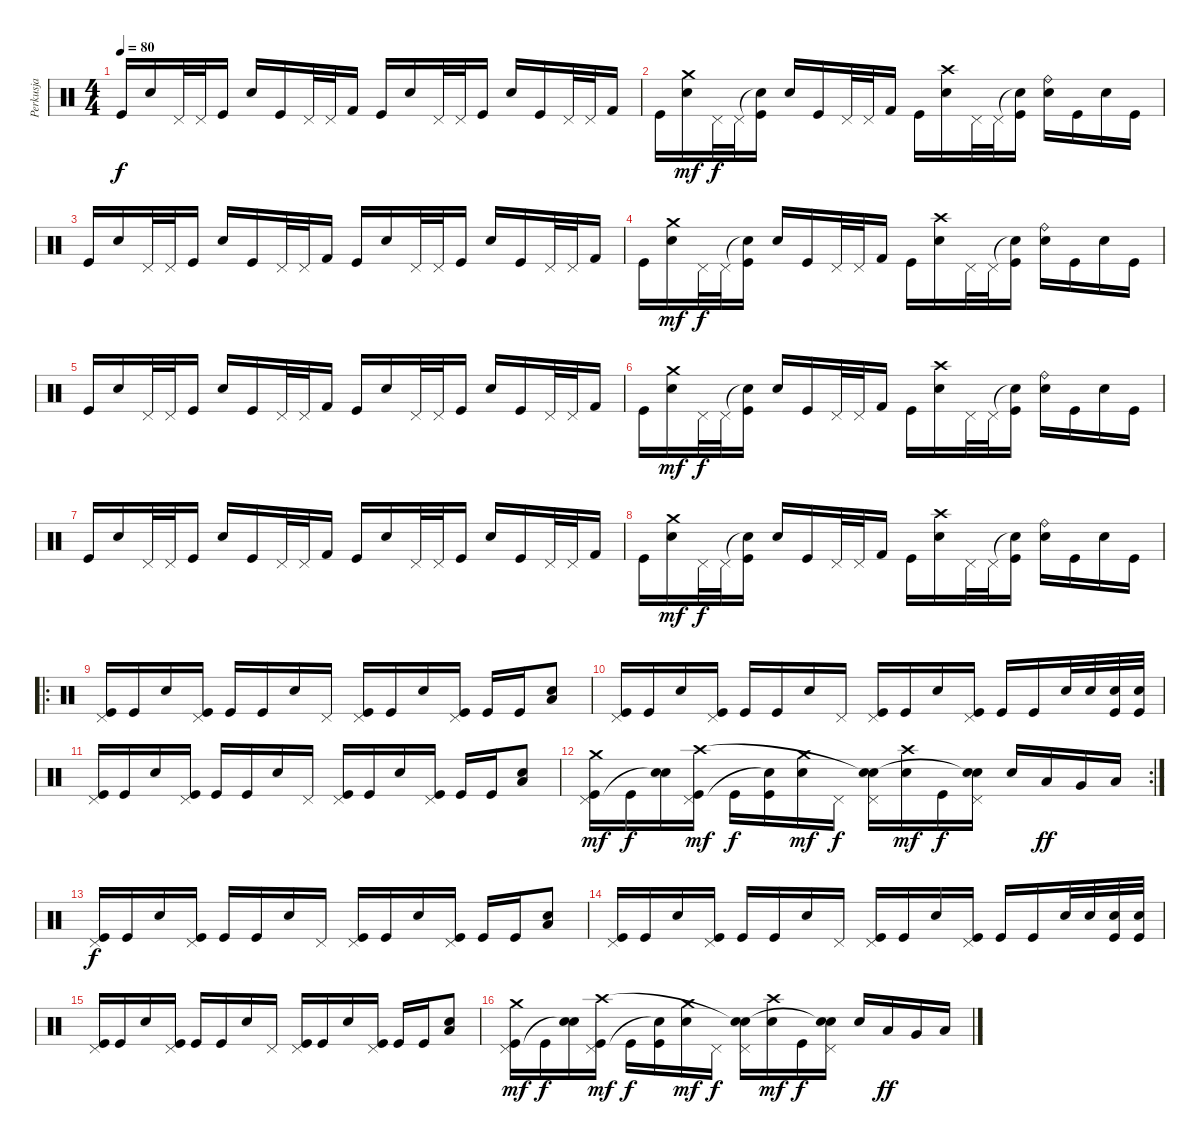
\track ("Perkusja" "Perkusja") {instrument percussion}
\staff {score}
\articulation defaults
\ts (4 4)
\tempo 80
\clef neutral
\ks c "Kick (hit)".16{dy f} "Electric Snare (hit)".16 "Pedal Hi-Hat (hit)".32 "Pedal Hi-Hat (hit)".32 "Kick (hit)".16 "Electric Snare (hit)".16 "Kick (hit)".16 "Pedal Hi-Hat (hit)".32 "Pedal Hi-Hat (hit)".32 "Kick (hit) 2".16 "Kick (hit)".16 "Electric Snare (hit)".16 "Pedal Hi-Hat (hit)".32 "Pedal Hi-Hat (hit)".32 "Kick (hit)".16 "Electric Snare (hit)".16 "Kick (hit)".16 "Pedal Hi-Hat (hit)".32 "Pedal Hi-Hat (hit)".32 "Kick (hit) 2".16
|
"Kick (hit)".16 ("Electric Snare (hit)" "Crash medium (hit)").16{dy mf} "Pedal Hi-Hat (hit)".32{dy f} "Pedal Hi-Hat (hit)".32 ("Snare (hit)"{t} "Kick (hit)").16 "Electric Snare (hit)".16 "Kick (hit)".16 "Pedal Hi-Hat (hit)".32 "Pedal Hi-Hat (hit)".32 "Kick (hit) 2".16 "Kick (hit)".16 ("Electric Snare (hit)" "Crash high (hit)").16 "Pedal Hi-Hat (hit)".32 "Pedal Hi-Hat (hit)".32 ("Snare (hit)"{t} "Kick (hit)").16 ("Electric Snare (hit)" "Ride (bell)").16 "Kick (hit)".16 "Electric Snare (hit)".16 "Kick (hit)".16 |
"Kick (hit)".16 "Electric Snare (hit)".16 "Pedal Hi-Hat (hit)".32 "Pedal Hi-Hat (hit)".32 "Kick (hit)".16 "Electric Snare (hit)".16 "Kick (hit)".16 "Pedal Hi-Hat (hit)".32 "Pedal Hi-Hat (hit)".32 "Kick (hit) 2".16 "Kick (hit)".16 "Electric Snare (hit)".16 "Pedal Hi-Hat (hit)".32 "Pedal Hi-Hat (hit)".32 "Kick (hit)".16 "Electric Snare (hit)".16 "Kick (hit)".16 "Pedal Hi-Hat (hit)".32 "Pedal Hi-Hat (hit)".32 "Kick (hit) 2".16 |
"Kick (hit)".16 ("Electric Snare (hit)" "Crash medium (hit)").16{dy mf} "Pedal Hi-Hat (hit)".32{dy f} "Pedal Hi-Hat (hit)".32 ("Snare (hit)"{t} "Kick (hit)").16 "Electric Snare (hit)".16 "Kick (hit)".16 "Pedal Hi-Hat (hit)".32 "Pedal Hi-Hat (hit)".32 "Kick (hit) 2".16 "Kick (hit)".16 ("Electric Snare (hit)" "Crash high (hit)").16 "Pedal Hi-Hat (hit)".32 "Pedal Hi-Hat (hit)".32 ("Snare (hit)"{t} "Kick (hit)").16 ("Electric Snare (hit)" "Ride (bell)").16 "Kick (hit)".16 "Electric Snare (hit)".16 "Kick (hit)".16 |
"Kick (hit)".16 "Electric Snare (hit)".16 "Pedal Hi-Hat (hit)".32 "Pedal Hi-Hat (hit)".32 "Kick (hit)".16 "Electric Snare (hit)".16 "Kick (hit)".16 "Pedal Hi-Hat (hit)".32 "Pedal Hi-Hat (hit)".32 "Kick (hit) 2".16 "Kick (hit)".16 "Electric Snare (hit)".16 "Pedal Hi-Hat (hit)".32 "Pedal Hi-Hat (hit)".32 "Kick (hit)".16 "Electric Snare (hit)".16 "Kick (hit)".16 "Pedal Hi-Hat (hit)".32 "Pedal Hi-Hat (hit)".32 "Kick (hit) 2".16 |
"Kick (hit)".16 ("Electric Snare (hit)" "Crash medium (hit)").16{dy mf} "Pedal Hi-Hat (hit)".32{dy f} "Pedal Hi-Hat (hit)".32 ("Snare (hit)"{t} "Kick (hit)").16 "Electric Snare (hit)".16 "Kick (hit)".16 "Pedal Hi-Hat (hit)".32 "Pedal Hi-Hat (hit)".32 "Kick (hit) 2".16 "Kick (hit)".16 ("Electric Snare (hit)" "Crash high (hit)").16 "Pedal Hi-Hat (hit)".32 "Pedal Hi-Hat (hit)".32 ("Snare (hit)"{t} "Kick (hit)").16 ("Electric Snare (hit)" "Ride (bell)").16 "Kick (hit)".16 "Electric Snare (hit)".16 "Kick (hit)".16 |
"Kick (hit)".16 "Electric Snare (hit)".16 "Pedal Hi-Hat (hit)".32 "Pedal Hi-Hat (hit)".32 "Kick (hit)".16 "Electric Snare (hit)".16 "Kick (hit)".16 "Pedal Hi-Hat (hit)".32 "Pedal Hi-Hat (hit)".32 "Kick (hit) 2".16 "Kick (hit)".16 "Electric Snare (hit)".16 "Pedal Hi-Hat (hit)".32 "Pedal Hi-Hat (hit)".32 "Kick (hit)".16 "Electric Snare (hit)".16 "Kick (hit)".16 "Pedal Hi-Hat (hit)".32 "Pedal Hi-Hat (hit)".32 "Kick (hit) 2".16 |
"Kick (hit)".16 ("Electric Snare (hit)" "Crash medium (hit)").16{dy mf} "Pedal Hi-Hat (hit)".32{dy f} "Pedal Hi-Hat (hit)".32 ("Snare (hit)"{t} "Kick (hit)").16 "Electric Snare (hit)".16 "Kick (hit)".16 "Pedal Hi-Hat (hit)".32 "Pedal Hi-Hat (hit)".32 "Kick (hit) 2".16 "Kick (hit)".16 ("Electric Snare (hit)" "Crash high (hit)").16 "Pedal Hi-Hat (hit)".32 "Pedal Hi-Hat (hit)".32 ("Snare (hit)"{t} "Kick (hit)").16 ("Electric Snare (hit)" "Ride (bell)").16 "Kick (hit)".16 "Electric Snare (hit)".16 "Kick (hit)".16 |
\ro
("Kick (hit)" "Pedal Hi-Hat (hit)").16 "Kick (hit)".16 "Electric Snare (hit)".16 ("Kick (hit)" "Pedal Hi-Hat (hit)").16 "Kick (hit)".16 "Kick (hit)".16 "Electric Snare (hit)".16 "Pedal Hi-Hat (hit)".16 ("Kick (hit)" "Pedal Hi-Hat (hit)").16 "Kick (hit)".16 "Electric Snare (hit)".16 ("Kick (hit)" "Pedal Hi-Hat (hit)").16 "Kick (hit)".16 "Kick (hit)".16 ("Electric Snare (hit)" "Low Tom (hit)").8 |
("Kick (hit)" "Pedal Hi-Hat (hit)").16 "Kick (hit)".16 "Electric Snare (hit)".16 ("Kick (hit)" "Pedal Hi-Hat (hit)").16 "Kick (hit)".16 "Kick (hit)".16 "Electric Snare (hit)".16 "Pedal Hi-Hat (hit)".16 ("Kick (hit)" "Pedal Hi-Hat (hit)").16 "Kick (hit)".16 "Electric Snare (hit)".16 ("Kick (hit)" "Pedal Hi-Hat (hit)").16 "Kick (hit)".16 "Kick (hit)".16 "Electric Snare (hit)".32 "Electric Snare (hit)".32 ("Electric Snare (hit)" "Kick (hit)").32 ("Electric Snare (hit)" "Kick (hit)").32 |
("Kick (hit)" "Pedal Hi-Hat (hit)").16 "Kick (hit)".16 "Electric Snare (hit)".16 ("Kick (hit)" "Pedal Hi-Hat (hit)").16 "Kick (hit)".16 "Kick (hit)".16 "Electric Snare (hit)".16 "Pedal Hi-Hat (hit)".16 ("Kick (hit)" "Pedal Hi-Hat (hit)").16 "Kick (hit)".16 "Electric Snare (hit)".16 ("Kick (hit)" "Pedal Hi-Hat (hit)").16 "Kick (hit)".16 "Kick (hit)".16 ("Electric Snare (hit)" "Low Tom (hit)").8 |
\rc 2
("Kick (hit)" "Pedal Hi-Hat (hit)" "Crash medium (hit)").16{dy mf} "Kick (hit)".16{dy f} ("Electric Snare (hit)" "Snare (hit)"{t}).16 ("Kick (hit)" "Pedal Hi-Hat (hit)" "Crash high (hit)").16{dy mf} "Kick (hit)".16{dy f} ("Kick (hit)" "Snare (hit)"{t}).16 ("Electric Snare (hit)" "Crash medium (hit)").16{dy mf} "Pedal Hi-Hat (hit)".16{dy f} ("Electric Snare (hit)" "Pedal Hi-Hat (hit)" "Snare (hit)"{t}).16 ("Snare (hit) 2" "Crash high (hit)").16{dy mf} "Kick (hit)".16{dy f} ("Electric Snare (hit)" "Pedal Hi-Hat (hit)" "Snare (hit)"{t}).16 "Snare (hit) 2".16 "Low Tom (hit)".16{dy ff} "Very Low Tom (hit)".16 "Low Floor Tom (hit)".16 |
("Kick (hit)" "Pedal Hi-Hat (hit)").16{dy f} "Kick (hit)".16 "Electric Snare (hit)".16 ("Kick (hit)" "Pedal Hi-Hat (hit)").16 "Kick (hit)".16 "Kick (hit)".16 "Electric Snare (hit)".16 "Pedal Hi-Hat (hit)".16 ("Kick (hit)" "Pedal Hi-Hat (hit)").16 "Kick (hit)".16 "Electric Snare (hit)".16 ("Kick (hit)" "Pedal Hi-Hat (hit)").16 "Kick (hit)".16 "Kick (hit)".16 ("Electric Snare (hit)" "Low Tom (hit)").8 |
("Kick (hit)" "Pedal Hi-Hat (hit)").16 "Kick (hit)".16 "Electric Snare (hit)".16 ("Kick (hit)" "Pedal Hi-Hat (hit)").16 "Kick (hit)".16 "Kick (hit)".16 "Electric Snare (hit)".16 "Pedal Hi-Hat (hit)".16 ("Kick (hit)" "Pedal Hi-Hat (hit)").16 "Kick (hit)".16 "Electric Snare (hit)".16 ("Kick (hit)" "Pedal Hi-Hat (hit)").16 "Kick (hit)".16 "Kick (hit)".16 "Electric Snare (hit)".32 "Electric Snare (hit)".32 ("Electric Snare (hit)" "Kick (hit)").32 ("Electric Snare (hit)" "Kick (hit)").32 |
("Kick (hit)" "Pedal Hi-Hat (hit)").16 "Kick (hit)".16 "Electric Snare (hit)".16 ("Kick (hit)" "Pedal Hi-Hat (hit)").16 "Kick (hit)".16 "Kick (hit)".16 "Electric Snare (hit)".16 "Pedal Hi-Hat (hit)".16 ("Kick (hit)" "Pedal Hi-Hat (hit)").16 "Kick (hit)".16 "Electric Snare (hit)".16 ("Kick (hit)" "Pedal Hi-Hat (hit)").16 "Kick (hit)".16 "Kick (hit)".16 ("Electric Snare (hit)" "Low Tom (hit)").8 |
("Kick (hit)" "Pedal Hi-Hat (hit)" "Crash medium (hit)").16{dy mf} "Kick (hit)".16{dy f} ("Electric Snare (hit)" "Snare (hit)"{t}).16 ("Kick (hit)" "Pedal Hi-Hat (hit)" "Crash high (hit)").16{dy mf} "Kick (hit)".16{dy f} ("Kick (hit)" "Snare (hit)"{t}).16 ("Electric Snare (hit)" "Crash medium (hit)").16{dy mf} "Pedal Hi-Hat (hit)".16{dy f} ("Electric Snare (hit)" "Pedal Hi-Hat (hit)" "Snare (hit)"{t}).16 ("Snare (hit) 2" "Crash high (hit)").16{dy mf} "Kick (hit)".16{dy f} ("Electric Snare (hit)" "Pedal Hi-Hat (hit)" "Snare (hit)"{t}).16 "Snare (hit) 2".16 "Low Tom (hit)".16{dy ff} "Very Low Tom (hit)".16 "Low Floor Tom (hit)".16
